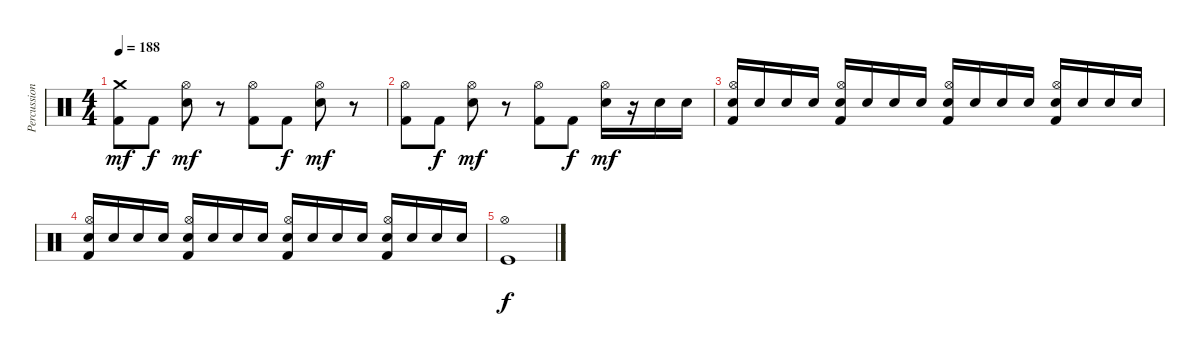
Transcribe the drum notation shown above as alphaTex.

\track ("Percussion" "Percussion") {instrument percussion}
\staff {score}
\articulation defaults
\ts (4 4)
\tempo 188
\clef neutral
\ks c
("Crash medium (hit)" "Kick (hit) 2").8{dy mf} "Kick (hit) 2".8{dy f} ("Hi-Hat (open)" "Snare (hit) 2").8{dy mf} r.8 ("Hi-Hat (open)" "Kick (hit) 2").8 "Kick (hit) 2".8{dy f} ("Hi-Hat (open)" "Snare (hit) 2").8{dy mf} r.8 |
("Hi-Hat (open)" "Kick (hit) 2").8 "Kick (hit) 2".8{dy f} ("Hi-Hat (open)" "Snare (hit) 2").8{dy mf} r.8 ("Hi-Hat (open)" "Kick (hit) 2").8 "Kick (hit) 2".8{dy f} ("Hi-Hat (open)" "Snare (hit) 2").16{dy mf} r.16 "Snare (hit) 2".16 "Snare (hit) 2".16 |
("Hi-Hat (open)" "Snare (hit) 2" "Kick (hit) 2").16 "Snare (hit) 2".16 "Snare (hit) 2".16 "Snare (hit) 2".16 ("Hi-Hat (open)" "Snare (hit) 2" "Kick (hit) 2").16 "Snare (hit) 2".16 "Snare (hit) 2".16 "Snare (hit) 2".16 ("Hi-Hat (open)" "Snare (hit) 2" "Kick (hit) 2").16 "Snare (hit) 2".16 "Snare (hit) 2".16 "Snare (hit) 2".16 ("Hi-Hat (open)" "Snare (hit) 2" "Kick (hit) 2").16 "Snare (hit) 2".16 "Snare (hit) 2".16 "Snare (hit) 2".16 |
("Hi-Hat (open)" "Snare (hit) 2" "Kick (hit) 2").16 "Snare (hit) 2".16 "Snare (hit) 2".16 "Snare (hit) 2".16 ("Hi-Hat (open)" "Snare (hit) 2" "Kick (hit) 2").16 "Snare (hit) 2".16 "Snare (hit) 2".16 "Snare (hit) 2".16 ("Hi-Hat (open)" "Snare (hit) 2" "Kick (hit) 2").16 "Snare (hit) 2".16 "Snare (hit) 2".16 "Snare (hit) 2".16 ("Hi-Hat (open)" "Snare (hit) 2" "Kick (hit) 2").16 "Snare (hit) 2".16 "Snare (hit) 2".16 "Snare (hit) 2".16 |
("Hi-Hat (open)" "Kick (hit)").1{dy f}
